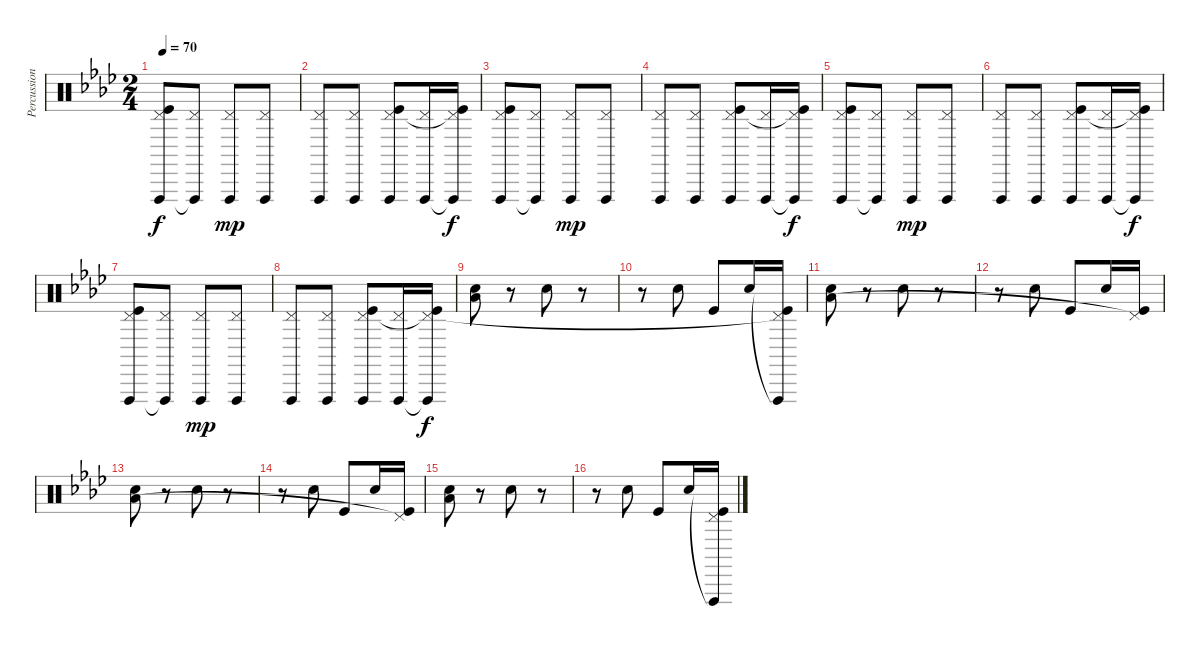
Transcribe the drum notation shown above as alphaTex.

\track ("Percussion" "Percussion") {instrument percussion}
\staff {score}
\articulation defaults
\ts (2 4)
\tempo 70
\clef neutral
\ks fminor
("Vibraslap (hit)" "Kick (hit)" "Pedal Hi-Hat (hit)").8{dy f} ("Vibraslap (hit)"{t} "Pedal Hi-Hat (hit)").8 ("Vibraslap (hit)" "Pedal Hi-Hat (hit)").8{dy mp} ("Vibraslap (hit)" "Pedal Hi-Hat (hit)").8 |
("Vibraslap (hit)" "Pedal Hi-Hat (hit)").8 ("Vibraslap (hit)" "Pedal Hi-Hat (hit)").8 ("Vibraslap (hit)" "Kick (hit)" "Pedal Hi-Hat (hit)").8 ("Vibraslap (hit)" "Pedal Hi-Hat (hit)").16 ("Vibraslap (hit)"{t} "Kick (hit)" "Pedal Hi-Hat (hit)"{t}).16{dy f} |
("Vibraslap (hit)" "Kick (hit)" "Pedal Hi-Hat (hit)").8 ("Vibraslap (hit)"{t} "Pedal Hi-Hat (hit)").8 ("Vibraslap (hit)" "Pedal Hi-Hat (hit)").8{dy mp} ("Vibraslap (hit)" "Pedal Hi-Hat (hit)").8 |
("Vibraslap (hit)" "Pedal Hi-Hat (hit)").8 ("Vibraslap (hit)" "Pedal Hi-Hat (hit)").8 ("Vibraslap (hit)" "Kick (hit)" "Pedal Hi-Hat (hit)").8 ("Vibraslap (hit)" "Pedal Hi-Hat (hit)").16 ("Vibraslap (hit)"{t} "Kick (hit)" "Pedal Hi-Hat (hit)"{t}).16{dy f} |
("Vibraslap (hit)" "Kick (hit)" "Pedal Hi-Hat (hit)").8 ("Vibraslap (hit)"{t} "Pedal Hi-Hat (hit)").8 ("Vibraslap (hit)" "Pedal Hi-Hat (hit)").8{dy mp} ("Vibraslap (hit)" "Pedal Hi-Hat (hit)").8 |
("Vibraslap (hit)" "Pedal Hi-Hat (hit)").8 ("Vibraslap (hit)" "Pedal Hi-Hat (hit)").8 ("Vibraslap (hit)" "Kick (hit)" "Pedal Hi-Hat (hit)").8 ("Vibraslap (hit)" "Pedal Hi-Hat (hit)").16 ("Vibraslap (hit)"{t} "Kick (hit)" "Pedal Hi-Hat (hit)"{t}).16{dy f} |
("Vibraslap (hit)" "Kick (hit)" "Pedal Hi-Hat (hit)").8 ("Vibraslap (hit)"{t} "Pedal Hi-Hat (hit)").8 ("Vibraslap (hit)" "Pedal Hi-Hat (hit)").8{dy mp} ("Vibraslap (hit)" "Pedal Hi-Hat (hit)").8 |
("Vibraslap (hit)" "Pedal Hi-Hat (hit)").8 ("Vibraslap (hit)" "Pedal Hi-Hat (hit)").8 ("Vibraslap (hit)" "Kick (hit)" "Pedal Hi-Hat (hit)").8 ("Vibraslap (hit)" "Pedal Hi-Hat (hit)").16 ("Vibraslap (hit)"{t} "Kick (hit)" "Pedal Hi-Hat (hit)"{t}).16{dy f} |
("Electric Snare (hit)" "Low Floor Tom (hit)").8 r.8 "Electric Snare (hit)".8 r.8 |
r.8 "Electric Snare (hit)".8 "Kick (hit)".8 "Electric Snare (hit)".16 ("Vibraslap (hit)"{t} "Kick (hit)" "Pedal Hi-Hat (hit)"{t}).16 |
("Electric Snare (hit)" "Low Floor Tom (hit)").8 r.8 "Electric Snare (hit)".8 r.8 |
r.8 "Electric Snare (hit)".8 "Kick (hit)".8 "Electric Snare (hit)".16 ("Kick (hit)" "Pedal Hi-Hat (hit)"{t}).16 |
("Electric Snare (hit)" "Low Floor Tom (hit)").8 r.8 "Electric Snare (hit)".8 r.8 |
r.8 "Electric Snare (hit)".8 "Kick (hit)".8 "Electric Snare (hit)".16 ("Kick (hit)" "Pedal Hi-Hat (hit)"{t}).16 |
("Electric Snare (hit)" "Low Floor Tom (hit)").8 r.8 "Electric Snare (hit)".8 r.8 |
r.8 "Electric Snare (hit)".8 "Kick (hit)".8 "Electric Snare (hit)".16 ("Vibraslap (hit)"{t} "Kick (hit)" "Pedal Hi-Hat (hit)").16
